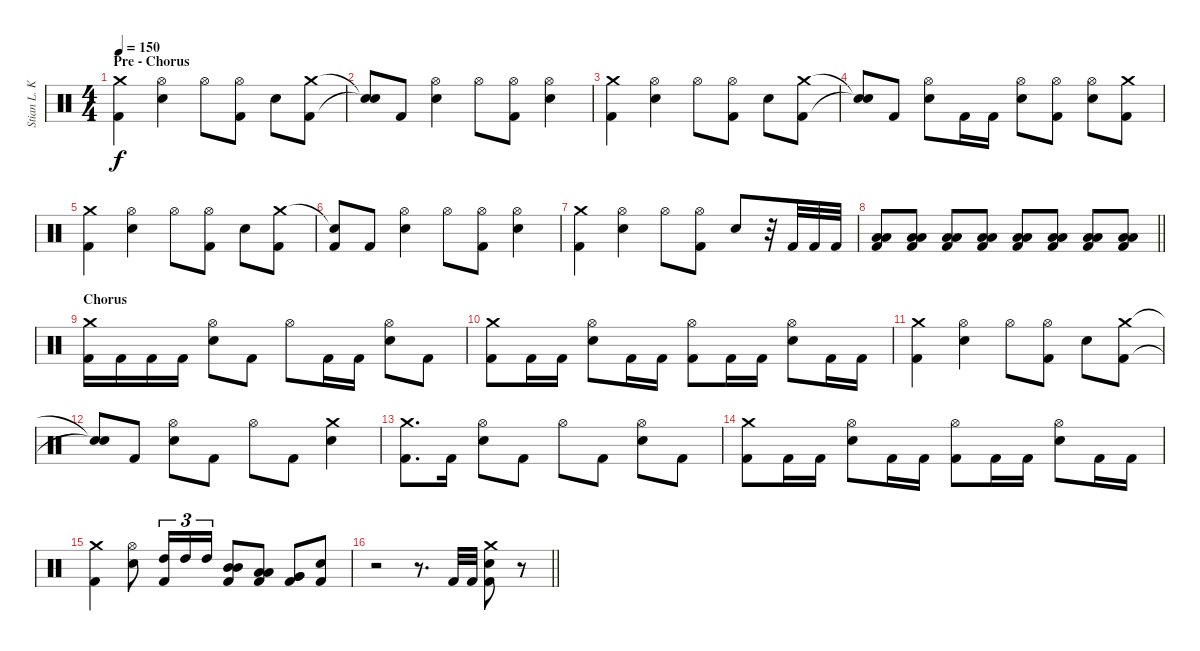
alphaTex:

\track ("Stian L. Kristoffersen" "Stian L. K") {instrument percussion}
\staff {score}
\articulation defaults
\ts (4 4)
\section ("" "Pre - Chorus")
\tempo 150
\clef neutral
\ks c
("Crash medium (hit)" "Kick (hit) 2").4{dy f} ("Hi-Hat (open)" "Electric Snare (hit)").4 "Hi-Hat (open)".8 ("Hi-Hat (open)" "Kick (hit) 2").8 "Electric Snare (hit)".8 ("Crash medium (hit)" "Kick (hit) 2").8 |
("Snare (hit)"{t} "Snare (hit)"{t}).8 "Kick (hit) 2".8 ("Hi-Hat (open)" "Electric Snare (hit)").4 "Hi-Hat (open)".8 ("Hi-Hat (open)" "Kick (hit) 2").8 ("Hi-Hat (open)" "Electric Snare (hit)").4 |
("Crash medium (hit)" "Kick (hit) 2").4 ("Hi-Hat (open)" "Electric Snare (hit)").4 "Hi-Hat (open)".8 ("Hi-Hat (open)" "Kick (hit) 2").8 "Electric Snare (hit)".8 ("Crash medium (hit)" "Kick (hit) 2").8 |
("Snare (hit)"{t} "Snare (hit)"{t}).8 "Kick (hit) 2".8 ("Hi-Hat (open)" "Electric Snare (hit)").8 "Kick (hit) 2".16 "Kick (hit) 2".16 ("Hi-Hat (open)" "Electric Snare (hit)").8 ("Hi-Hat (open)" "Kick (hit) 2").8 ("Hi-Hat (open)" "Electric Snare (hit)").8 ("Crash medium (hit)" "Kick (hit) 2").8 |
("Crash medium (hit)" "Kick (hit) 2").4 ("Hi-Hat (open)" "Electric Snare (hit)").4 "Hi-Hat (open)".8 ("Hi-Hat (open)" "Kick (hit) 2").8 "Electric Snare (hit)".8 ("Crash medium (hit)" "Kick (hit) 2").8 |
("Snare (hit)"{t} "Kick (hit) 2").8 "Kick (hit) 2".8 ("Hi-Hat (open)" "Electric Snare (hit)").4 "Hi-Hat (open)".8 ("Hi-Hat (open)" "Kick (hit) 2").8 ("Hi-Hat (open)" "Electric Snare (hit)").4 |
("Crash medium (hit)" "Kick (hit) 2").4 ("Hi-Hat (open)" "Electric Snare (hit)").4 "Hi-Hat (open)".8 ("Hi-Hat (open)" "Kick (hit) 2").8 "Electric Snare (hit)".8 r.32 "Kick (hit) 2".32 "Kick (hit) 2".32 "Kick (hit) 2".32 |
\barLineRight lightlight
("Low Floor Tom (hit)" "Low Floor Tom (hit)" "Kick (hit) 2").8 ("Low Floor Tom (hit)" "Low Floor Tom (hit)" "Kick (hit) 2").8 ("Low Floor Tom (hit)" "Low Floor Tom (hit)" "Kick (hit) 2").8 ("Low Floor Tom (hit)" "Low Floor Tom (hit)" "Kick (hit) 2").8 ("Low Floor Tom (hit)" "Low Floor Tom (hit)" "Kick (hit) 2").8 ("Low Floor Tom (hit)" "Low Floor Tom (hit)" "Kick (hit) 2").8 ("Low Floor Tom (hit)" "Low Floor Tom (hit)" "Kick (hit) 2").8 ("Low Floor Tom (hit)" "Low Floor Tom (hit)" "Kick (hit) 2").8 |
\section ("" "Chorus")
("Crash medium (hit)" "Kick (hit) 2").16 "Kick (hit) 2".16 "Kick (hit) 2".16 "Kick (hit) 2".16 ("Hi-Hat (open)" "Electric Snare (hit)").8 "Kick (hit) 2".8 "Hi-Hat (open)".8 "Kick (hit) 2".16 "Kick (hit) 2".16 ("Hi-Hat (open)" "Electric Snare (hit)").8 "Kick (hit) 2".8 |
("Crash medium (hit)" "Kick (hit) 2").8 "Kick (hit) 2".16 "Kick (hit) 2".16 ("Hi-Hat (open)" "Electric Snare (hit)").8 "Kick (hit) 2".16 "Kick (hit) 2".16 ("Hi-Hat (open)" "Kick (hit) 2").8 "Kick (hit) 2".16 "Kick (hit) 2".16 ("Hi-Hat (open)" "Electric Snare (hit)").8 "Kick (hit) 2".16 "Kick (hit) 2".16 |
("Crash medium (hit)" "Kick (hit) 2").4 ("Hi-Hat (open)" "Electric Snare (hit)").4 "Hi-Hat (open)".8 ("Hi-Hat (open)" "Kick (hit) 2").8 "Electric Snare (hit)".8 ("Crash medium (hit)" "Kick (hit) 2").8 |
("Snare (hit)"{t} "Snare (hit)"{t}).8 "Kick (hit) 2".8 ("Hi-Hat (open)" "Electric Snare (hit)").8 "Kick (hit) 2".8 "Hi-Hat (open)".8 "Kick (hit) 2".8 ("Crash medium (hit)" "Electric Snare (hit)").4 |
("Crash medium (hit)" "Kick (hit) 2").8{d} "Kick (hit) 2".16 ("Hi-Hat (open)" "Electric Snare (hit)").8 "Kick (hit) 2".8 "Hi-Hat (open)".8 "Kick (hit) 2".8 ("Hi-Hat (open)" "Electric Snare (hit)").8 "Kick (hit) 2".8 |
("Crash medium (hit)" "Kick (hit) 2").8 "Kick (hit) 2".16 "Kick (hit) 2".16 ("Hi-Hat (open)" "Electric Snare (hit)").8 "Kick (hit) 2".16 "Kick (hit) 2".16 ("Hi-Hat (open)" "Kick (hit) 2").8 "Kick (hit) 2".16 "Kick (hit) 2".16 ("Hi-Hat (open)" "Electric Snare (hit)").8 "Kick (hit) 2".16 "Kick (hit) 2".16 |
("Crash medium (hit)" "Kick (hit) 2").4 ("Hi-Hat (open)" "Electric Snare (hit)").8 ("High Tom (hit)" "Kick (hit) 2").16{tu (3 2)} "High Tom (hit)".16{tu (3 2)} "High Tom (hit)".16{tu (3 2)} ("Mid Tom (hit)" "Mid Tom (hit)" "Kick (hit) 2").8 ("Low Tom (hit)" "Low Tom (hit)" "Kick (hit) 2").8 ("Very Low Tom (hit)" "Very Low Tom (hit)" "Kick (hit) 2").8 ("Electric Snare (hit)" "Kick (hit) 2").8 |
\barLineRight lightlight
r.2 r.8{d} "Kick (hit) 2".32 "Kick (hit) 2".32 ("Crash medium (hit)" "Electric Snare (hit)" "Kick (hit) 2").8 r.8
